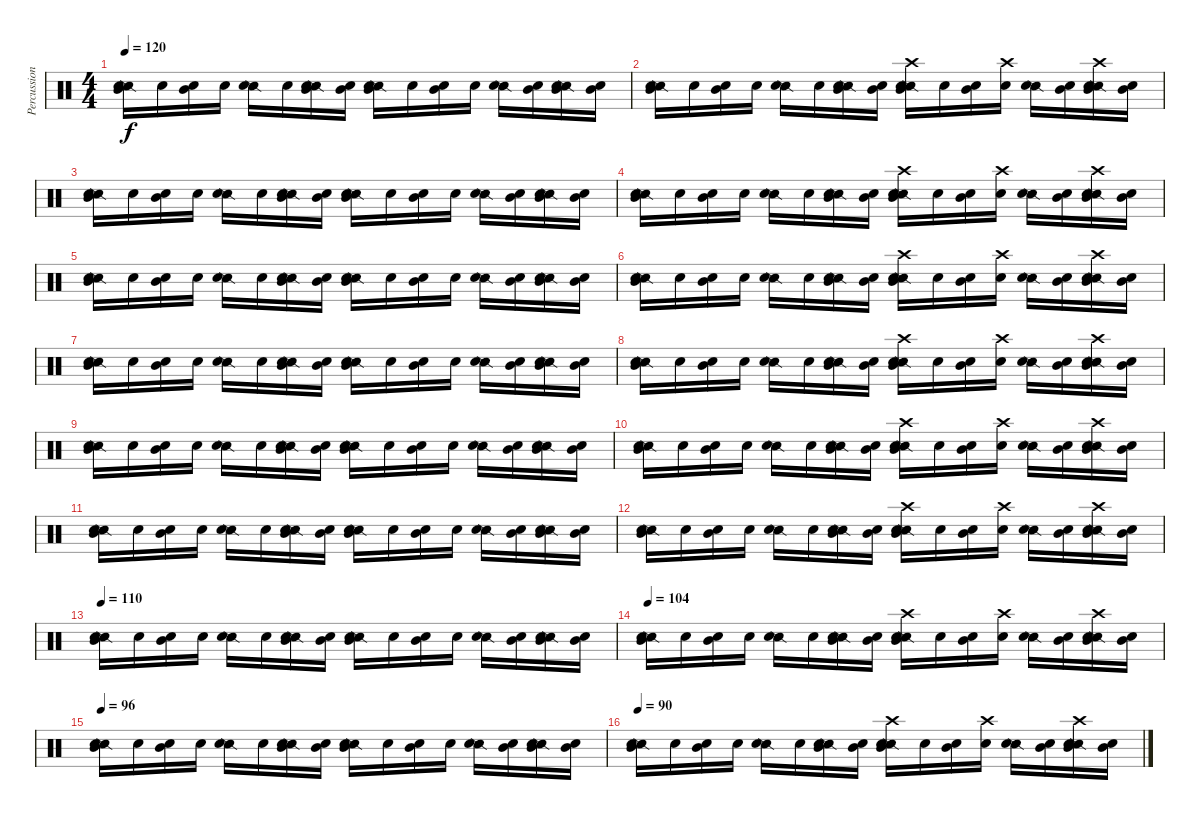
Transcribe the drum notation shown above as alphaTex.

\track ("Percussion" "Percussion") {instrument percussion}
\staff {score}
\articulation defaults
\ts (4 4)
\tempo 120
\clef neutral
\ks c
("Mid Tom (hit)" "Snare (side stick) 2" "Snare (hit) 2").16{dy f} "Snare (hit) 2".16 ("Mid Tom (hit)" "Snare (hit) 2").16 "Snare (hit) 2".16 ("Snare (side stick) 2" "Snare (hit) 2").16 "Snare (hit) 2".16 ("Mid Tom (hit)" "Snare (side stick) 2" "Snare (hit) 2").16 ("Mid Tom (hit)" "Snare (hit) 2").16 ("Mid Tom (hit)" "Snare (side stick) 2" "Snare (hit) 2").16 "Snare (hit) 2".16 ("Mid Tom (hit)" "Snare (hit) 2").16 "Snare (hit) 2".16 ("Snare (side stick) 2" "Snare (hit) 2").16 ("Mid Tom (hit)" "Snare (hit) 2").16 ("Mid Tom (hit)" "Snare (side stick) 2" "Snare (hit) 2").16 ("Mid Tom (hit)" "Snare (hit) 2").16 |
("Mid Tom (hit)" "Snare (side stick) 2" "Snare (hit) 2").16 "Snare (hit) 2".16 ("Mid Tom (hit)" "Snare (hit) 2").16 "Snare (hit) 2".16 ("Snare (side stick) 2" "Snare (hit) 2").16 "Snare (hit) 2".16 ("Mid Tom (hit)" "Snare (side stick) 2" "Snare (hit) 2").16 ("Mid Tom (hit)" "Snare (hit) 2").16 ("Mid Tom (hit)" "Crash high (hit)" "Snare (side stick) 2" "Snare (hit) 2").16 "Snare (hit) 2".16 ("Mid Tom (hit)" "Snare (hit) 2").16 ("Crash high (hit)" "Snare (hit) 2").16 ("Snare (side stick) 2" "Snare (hit) 2").16 ("Mid Tom (hit)" "Snare (hit) 2").16 ("Mid Tom (hit)" "Crash high (hit)" "Snare (side stick) 2" "Snare (hit) 2").16 ("Mid Tom (hit)" "Snare (hit) 2").16 |
("Mid Tom (hit)" "Snare (side stick) 2" "Snare (hit) 2").16 "Snare (hit) 2".16 ("Mid Tom (hit)" "Snare (hit) 2").16 "Snare (hit) 2".16 ("Snare (side stick) 2" "Snare (hit) 2").16 "Snare (hit) 2".16 ("Mid Tom (hit)" "Snare (side stick) 2" "Snare (hit) 2").16 ("Mid Tom (hit)" "Snare (hit) 2").16 ("Mid Tom (hit)" "Snare (side stick) 2" "Snare (hit) 2").16 "Snare (hit) 2".16 ("Mid Tom (hit)" "Snare (hit) 2").16 "Snare (hit) 2".16 ("Snare (side stick) 2" "Snare (hit) 2").16 ("Mid Tom (hit)" "Snare (hit) 2").16 ("Mid Tom (hit)" "Snare (side stick) 2" "Snare (hit) 2").16 ("Mid Tom (hit)" "Snare (hit) 2").16 |
("Mid Tom (hit)" "Snare (side stick) 2" "Snare (hit) 2").16 "Snare (hit) 2".16 ("Mid Tom (hit)" "Snare (hit) 2").16 "Snare (hit) 2".16 ("Snare (side stick) 2" "Snare (hit) 2").16 "Snare (hit) 2".16 ("Mid Tom (hit)" "Snare (side stick) 2" "Snare (hit) 2").16 ("Mid Tom (hit)" "Snare (hit) 2").16 ("Mid Tom (hit)" "Crash high (hit)" "Snare (side stick) 2" "Snare (hit) 2").16 "Snare (hit) 2".16 ("Mid Tom (hit)" "Snare (hit) 2").16 ("Crash high (hit)" "Snare (hit) 2").16 ("Snare (side stick) 2" "Snare (hit) 2").16 ("Mid Tom (hit)" "Snare (hit) 2").16 ("Mid Tom (hit)" "Crash high (hit)" "Snare (side stick) 2" "Snare (hit) 2").16 ("Mid Tom (hit)" "Snare (hit) 2").16 |
("Mid Tom (hit)" "Snare (side stick) 2" "Snare (hit) 2").16 "Snare (hit) 2".16 ("Mid Tom (hit)" "Snare (hit) 2").16 "Snare (hit) 2".16 ("Snare (side stick) 2" "Snare (hit) 2").16 "Snare (hit) 2".16 ("Mid Tom (hit)" "Snare (side stick) 2" "Snare (hit) 2").16 ("Mid Tom (hit)" "Snare (hit) 2").16 ("Mid Tom (hit)" "Snare (side stick) 2" "Snare (hit) 2").16 "Snare (hit) 2".16 ("Mid Tom (hit)" "Snare (hit) 2").16 "Snare (hit) 2".16 ("Snare (side stick) 2" "Snare (hit) 2").16 ("Mid Tom (hit)" "Snare (hit) 2").16 ("Mid Tom (hit)" "Snare (side stick) 2" "Snare (hit) 2").16 ("Mid Tom (hit)" "Snare (hit) 2").16 |
("Mid Tom (hit)" "Snare (side stick) 2" "Snare (hit) 2").16 "Snare (hit) 2".16 ("Mid Tom (hit)" "Snare (hit) 2").16 "Snare (hit) 2".16 ("Snare (side stick) 2" "Snare (hit) 2").16 "Snare (hit) 2".16 ("Mid Tom (hit)" "Snare (side stick) 2" "Snare (hit) 2").16 ("Mid Tom (hit)" "Snare (hit) 2").16 ("Mid Tom (hit)" "Crash high (hit)" "Snare (side stick) 2" "Snare (hit) 2").16 "Snare (hit) 2".16 ("Mid Tom (hit)" "Snare (hit) 2").16 ("Crash high (hit)" "Snare (hit) 2").16 ("Snare (side stick) 2" "Snare (hit) 2").16 ("Mid Tom (hit)" "Snare (hit) 2").16 ("Mid Tom (hit)" "Crash high (hit)" "Snare (side stick) 2" "Snare (hit) 2").16 ("Mid Tom (hit)" "Snare (hit) 2").16 |
("Mid Tom (hit)" "Snare (side stick) 2" "Snare (hit) 2").16 "Snare (hit) 2".16 ("Mid Tom (hit)" "Snare (hit) 2").16 "Snare (hit) 2".16 ("Snare (side stick) 2" "Snare (hit) 2").16 "Snare (hit) 2".16 ("Mid Tom (hit)" "Snare (side stick) 2" "Snare (hit) 2").16 ("Mid Tom (hit)" "Snare (hit) 2").16 ("Mid Tom (hit)" "Snare (side stick) 2" "Snare (hit) 2").16 "Snare (hit) 2".16 ("Mid Tom (hit)" "Snare (hit) 2").16 "Snare (hit) 2".16 ("Snare (side stick) 2" "Snare (hit) 2").16 ("Mid Tom (hit)" "Snare (hit) 2").16 ("Mid Tom (hit)" "Snare (side stick) 2" "Snare (hit) 2").16 ("Mid Tom (hit)" "Snare (hit) 2").16 |
("Mid Tom (hit)" "Snare (side stick) 2" "Snare (hit) 2").16 "Snare (hit) 2".16 ("Mid Tom (hit)" "Snare (hit) 2").16 "Snare (hit) 2".16 ("Snare (side stick) 2" "Snare (hit) 2").16 "Snare (hit) 2".16 ("Mid Tom (hit)" "Snare (side stick) 2" "Snare (hit) 2").16 ("Mid Tom (hit)" "Snare (hit) 2").16 ("Mid Tom (hit)" "Crash high (hit)" "Snare (side stick) 2" "Snare (hit) 2").16 "Snare (hit) 2".16 ("Mid Tom (hit)" "Snare (hit) 2").16 ("Crash high (hit)" "Snare (hit) 2").16 ("Snare (side stick) 2" "Snare (hit) 2").16 ("Mid Tom (hit)" "Snare (hit) 2").16 ("Mid Tom (hit)" "Crash high (hit)" "Snare (side stick) 2" "Snare (hit) 2").16 ("Mid Tom (hit)" "Snare (hit) 2").16 |
("Mid Tom (hit)" "Snare (side stick) 2" "Snare (hit) 2").16 "Snare (hit) 2".16 ("Mid Tom (hit)" "Snare (hit) 2").16 "Snare (hit) 2".16 ("Snare (side stick) 2" "Snare (hit) 2").16 "Snare (hit) 2".16 ("Mid Tom (hit)" "Snare (side stick) 2" "Snare (hit) 2").16 ("Mid Tom (hit)" "Snare (hit) 2").16 ("Mid Tom (hit)" "Snare (side stick) 2" "Snare (hit) 2").16 "Snare (hit) 2".16 ("Mid Tom (hit)" "Snare (hit) 2").16 "Snare (hit) 2".16 ("Snare (side stick) 2" "Snare (hit) 2").16 ("Mid Tom (hit)" "Snare (hit) 2").16 ("Mid Tom (hit)" "Snare (side stick) 2" "Snare (hit) 2").16 ("Mid Tom (hit)" "Snare (hit) 2").16 |
("Mid Tom (hit)" "Snare (side stick) 2" "Snare (hit) 2").16 "Snare (hit) 2".16 ("Mid Tom (hit)" "Snare (hit) 2").16 "Snare (hit) 2".16 ("Snare (side stick) 2" "Snare (hit) 2").16 "Snare (hit) 2".16 ("Mid Tom (hit)" "Snare (side stick) 2" "Snare (hit) 2").16 ("Mid Tom (hit)" "Snare (hit) 2").16 ("Mid Tom (hit)" "Crash high (hit)" "Snare (side stick) 2" "Snare (hit) 2").16 "Snare (hit) 2".16 ("Mid Tom (hit)" "Snare (hit) 2").16 ("Crash high (hit)" "Snare (hit) 2").16 ("Snare (side stick) 2" "Snare (hit) 2").16 ("Mid Tom (hit)" "Snare (hit) 2").16 ("Mid Tom (hit)" "Crash high (hit)" "Snare (side stick) 2" "Snare (hit) 2").16 ("Mid Tom (hit)" "Snare (hit) 2").16 |
("Mid Tom (hit)" "Snare (side stick) 2" "Snare (hit) 2").16 "Snare (hit) 2".16 ("Mid Tom (hit)" "Snare (hit) 2").16 "Snare (hit) 2".16 ("Snare (side stick) 2" "Snare (hit) 2").16 "Snare (hit) 2".16 ("Mid Tom (hit)" "Snare (side stick) 2" "Snare (hit) 2").16 ("Mid Tom (hit)" "Snare (hit) 2").16 ("Mid Tom (hit)" "Snare (side stick) 2" "Snare (hit) 2").16 "Snare (hit) 2".16 ("Mid Tom (hit)" "Snare (hit) 2").16 "Snare (hit) 2".16 ("Snare (side stick) 2" "Snare (hit) 2").16 ("Mid Tom (hit)" "Snare (hit) 2").16 ("Mid Tom (hit)" "Snare (side stick) 2" "Snare (hit) 2").16 ("Mid Tom (hit)" "Snare (hit) 2").16 |
("Mid Tom (hit)" "Snare (side stick) 2" "Snare (hit) 2").16 "Snare (hit) 2".16 ("Mid Tom (hit)" "Snare (hit) 2").16 "Snare (hit) 2".16 ("Snare (side stick) 2" "Snare (hit) 2").16 "Snare (hit) 2".16 ("Mid Tom (hit)" "Snare (side stick) 2" "Snare (hit) 2").16 ("Mid Tom (hit)" "Snare (hit) 2").16 ("Mid Tom (hit)" "Crash high (hit)" "Snare (side stick) 2" "Snare (hit) 2").16 "Snare (hit) 2".16 ("Mid Tom (hit)" "Snare (hit) 2").16 ("Crash high (hit)" "Snare (hit) 2").16 ("Snare (side stick) 2" "Snare (hit) 2").16 ("Mid Tom (hit)" "Snare (hit) 2").16 ("Mid Tom (hit)" "Crash high (hit)" "Snare (side stick) 2" "Snare (hit) 2").16 ("Mid Tom (hit)" "Snare (hit) 2").16 |
\tempo 110
("Mid Tom (hit)" "Snare (side stick) 2" "Snare (hit) 2").16 "Snare (hit) 2".16 ("Mid Tom (hit)" "Snare (hit) 2").16 "Snare (hit) 2".16 ("Snare (side stick) 2" "Snare (hit) 2").16 "Snare (hit) 2".16 ("Mid Tom (hit)" "Snare (side stick) 2" "Snare (hit) 2").16 ("Mid Tom (hit)" "Snare (hit) 2").16 ("Mid Tom (hit)" "Snare (side stick) 2" "Snare (hit) 2").16 "Snare (hit) 2".16 ("Mid Tom (hit)" "Snare (hit) 2").16 "Snare (hit) 2".16 ("Snare (side stick) 2" "Snare (hit) 2").16 ("Mid Tom (hit)" "Snare (hit) 2").16 ("Mid Tom (hit)" "Snare (side stick) 2" "Snare (hit) 2").16 ("Mid Tom (hit)" "Snare (hit) 2").16 |
\tempo 104
("Mid Tom (hit)" "Snare (side stick) 2" "Snare (hit) 2").16 "Snare (hit) 2".16 ("Mid Tom (hit)" "Snare (hit) 2").16 "Snare (hit) 2".16 ("Snare (side stick) 2" "Snare (hit) 2").16 "Snare (hit) 2".16 ("Mid Tom (hit)" "Snare (side stick) 2" "Snare (hit) 2").16 ("Mid Tom (hit)" "Snare (hit) 2").16 ("Mid Tom (hit)" "Crash high (hit)" "Snare (side stick) 2" "Snare (hit) 2").16 "Snare (hit) 2".16 ("Mid Tom (hit)" "Snare (hit) 2").16 ("Crash high (hit)" "Snare (hit) 2").16 ("Snare (side stick) 2" "Snare (hit) 2").16 ("Mid Tom (hit)" "Snare (hit) 2").16 ("Mid Tom (hit)" "Crash high (hit)" "Snare (side stick) 2" "Snare (hit) 2").16 ("Mid Tom (hit)" "Snare (hit) 2").16 |
\tempo 96
("Mid Tom (hit)" "Snare (side stick) 2" "Snare (hit) 2").16 "Snare (hit) 2".16 ("Mid Tom (hit)" "Snare (hit) 2").16 "Snare (hit) 2".16 ("Snare (side stick) 2" "Snare (hit) 2").16 "Snare (hit) 2".16 ("Mid Tom (hit)" "Snare (side stick) 2" "Snare (hit) 2").16 ("Mid Tom (hit)" "Snare (hit) 2").16 ("Mid Tom (hit)" "Snare (side stick) 2" "Snare (hit) 2").16 "Snare (hit) 2".16 ("Mid Tom (hit)" "Snare (hit) 2").16 "Snare (hit) 2".16 ("Snare (side stick) 2" "Snare (hit) 2").16 ("Mid Tom (hit)" "Snare (hit) 2").16 ("Mid Tom (hit)" "Snare (side stick) 2" "Snare (hit) 2").16 ("Mid Tom (hit)" "Snare (hit) 2").16 |
\tempo 90
("Mid Tom (hit)" "Snare (side stick) 2" "Snare (hit) 2").16 "Snare (hit) 2".16 ("Mid Tom (hit)" "Snare (hit) 2").16 "Snare (hit) 2".16 ("Snare (side stick) 2" "Snare (hit) 2").16 "Snare (hit) 2".16 ("Mid Tom (hit)" "Snare (side stick) 2" "Snare (hit) 2").16 ("Mid Tom (hit)" "Snare (hit) 2").16 ("Mid Tom (hit)" "Crash high (hit)" "Snare (side stick) 2" "Snare (hit) 2").16 "Snare (hit) 2".16 ("Mid Tom (hit)" "Snare (hit) 2").16 ("Crash high (hit)" "Snare (hit) 2").16 ("Snare (side stick) 2" "Snare (hit) 2").16 ("Mid Tom (hit)" "Snare (hit) 2").16 ("Mid Tom (hit)" "Crash high (hit)" "Snare (side stick) 2" "Snare (hit) 2").16 ("Mid Tom (hit)" "Snare (hit) 2").16
